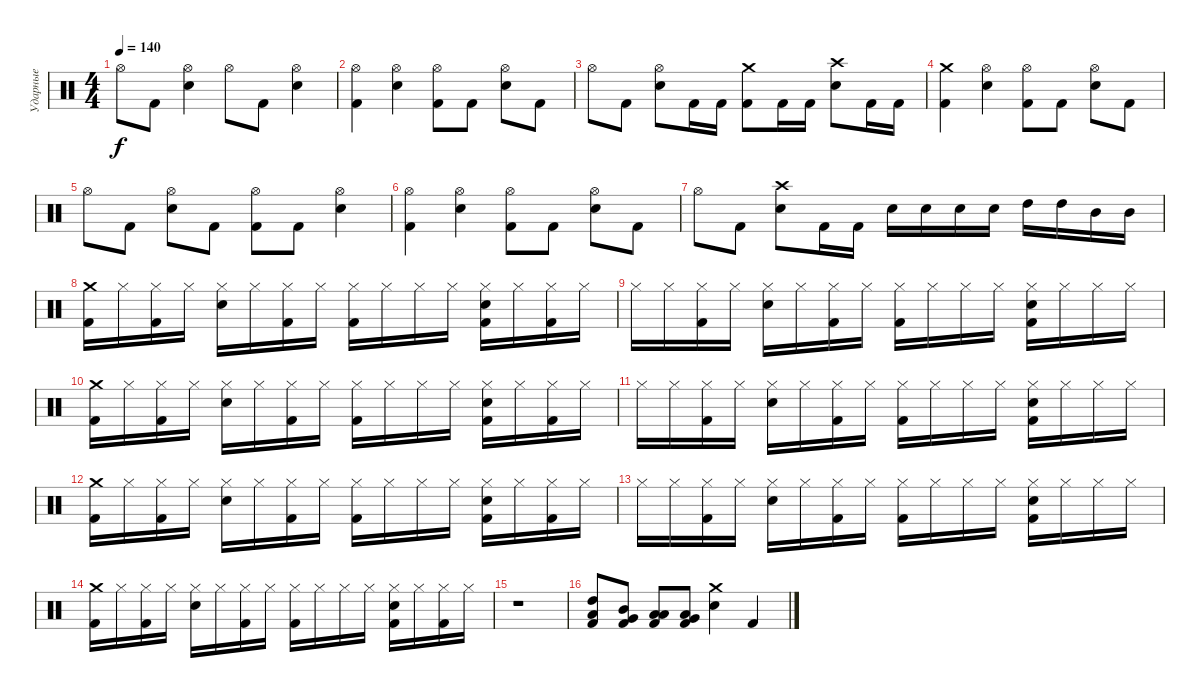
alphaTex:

\track ("Ударные" "Ударные") {instrument percussion}
\staff {score}
\articulation defaults
\ts (4 4)
\tempo 140
\clef neutral
\ks c "Hi-Hat (open)".8{dy f} "Kick (hit) 2".8
("Hi-Hat (open)" "Electric Snare (hit)").4 "Hi-Hat (open)".8 "Kick (hit) 2".8 ("Hi-Hat (open)" "Electric Snare (hit)").4 |
("Hi-Hat (open)" "Kick (hit) 2").4 ("Hi-Hat (open)" "Electric Snare (hit)").4 ("Hi-Hat (open)" "Kick (hit) 2").8 "Kick (hit) 2".8 ("Hi-Hat (open)" "Electric Snare (hit)").8 "Kick (hit) 2".8 |
"Hi-Hat (open)".8 "Kick (hit) 2".8 ("Hi-Hat (open)" "Electric Snare (hit)").8 "Kick (hit) 2".16 "Kick (hit) 2".16 ("Crash medium (hit)" "Kick (hit) 2").8 "Kick (hit) 2".16 "Kick (hit) 2".16 ("Crash high (hit)" "Electric Snare (hit)").8 "Kick (hit) 2".16 "Kick (hit) 2".16 |
("Crash medium (hit)" "Kick (hit) 2").4 ("Hi-Hat (open)" "Electric Snare (hit)").4 ("Hi-Hat (open)" "Kick (hit) 2").8 "Kick (hit) 2".8 ("Hi-Hat (open)" "Electric Snare (hit)").8 "Kick (hit) 2".8 |
"Hi-Hat (open)".8 "Kick (hit) 2".8 ("Hi-Hat (open)" "Electric Snare (hit)").8 "Kick (hit) 2".8 ("Hi-Hat (open)" "Kick (hit) 2").8 "Kick (hit) 2".8 ("Hi-Hat (open)" "Electric Snare (hit)").4 |
("Hi-Hat (open)" "Kick (hit) 2").4 ("Hi-Hat (open)" "Electric Snare (hit)").4 ("Hi-Hat (open)" "Kick (hit) 2").8 "Kick (hit) 2".8 ("Hi-Hat (open)" "Electric Snare (hit)").8 "Kick (hit) 2".8 |
"Hi-Hat (open)".8 "Kick (hit) 2".8 ("Crash high (hit)" "Electric Snare (hit)").8 "Kick (hit) 2".16 "Kick (hit) 2".16 "Electric Snare (hit)".16 "Electric Snare (hit)".16 "Electric Snare (hit)".16 "Electric Snare (hit)".16 "High Tom (hit)".16 "High Tom (hit)".16 "Mid Tom (hit)".16 "Mid Tom (hit)".16 |
("Crash medium (hit)" "Kick (hit) 2").16 "Hi-Hat (closed)".16 ("Hi-Hat (closed)" "Kick (hit) 2").16 "Hi-Hat (closed)".16 ("Hi-Hat (closed)" "Electric Snare (hit)").16 "Hi-Hat (closed)".16 ("Hi-Hat (closed)" "Kick (hit) 2").16 "Hi-Hat (closed)".16 ("Hi-Hat (closed)" "Kick (hit) 2").16 "Hi-Hat (closed)".16 "Hi-Hat (closed)".16 "Hi-Hat (closed)".16 ("Hi-Hat (closed)" "Electric Snare (hit)" "Kick (hit) 2").16 "Hi-Hat (closed)".16 ("Hi-Hat (closed)" "Kick (hit) 2").16 "Hi-Hat (closed)".16 |
"Hi-Hat (closed)".16 "Hi-Hat (closed)".16 ("Hi-Hat (closed)" "Kick (hit) 2").16 "Hi-Hat (closed)".16 ("Hi-Hat (closed)" "Electric Snare (hit)").16 "Hi-Hat (closed)".16 ("Hi-Hat (closed)" "Kick (hit) 2").16 "Hi-Hat (closed)".16 ("Hi-Hat (closed)" "Kick (hit) 2").16 "Hi-Hat (closed)".16 "Hi-Hat (closed)".16 "Hi-Hat (closed)".16 ("Hi-Hat (closed)" "Electric Snare (hit)" "Kick (hit) 2").16 "Hi-Hat (closed)".16 "Hi-Hat (closed)".16 "Hi-Hat (closed)".16 |
("Crash medium (hit)" "Kick (hit) 2").16 "Hi-Hat (closed)".16 ("Hi-Hat (closed)" "Kick (hit) 2").16 "Hi-Hat (closed)".16 ("Hi-Hat (closed)" "Electric Snare (hit)").16 "Hi-Hat (closed)".16 ("Hi-Hat (closed)" "Kick (hit) 2").16 "Hi-Hat (closed)".16 ("Hi-Hat (closed)" "Kick (hit) 2").16 "Hi-Hat (closed)".16 "Hi-Hat (closed)".16 "Hi-Hat (closed)".16 ("Hi-Hat (closed)" "Electric Snare (hit)" "Kick (hit) 2").16 "Hi-Hat (closed)".16 ("Hi-Hat (closed)" "Kick (hit) 2").16 "Hi-Hat (closed)".16 |
"Hi-Hat (closed)".16 "Hi-Hat (closed)".16 ("Hi-Hat (closed)" "Kick (hit) 2").16 "Hi-Hat (closed)".16 ("Hi-Hat (closed)" "Electric Snare (hit)").16 "Hi-Hat (closed)".16 ("Hi-Hat (closed)" "Kick (hit) 2").16 "Hi-Hat (closed)".16 ("Hi-Hat (closed)" "Kick (hit) 2").16 "Hi-Hat (closed)".16 "Hi-Hat (closed)".16 "Hi-Hat (closed)".16 ("Hi-Hat (closed)" "Electric Snare (hit)" "Kick (hit) 2").16 "Hi-Hat (closed)".16 "Hi-Hat (closed)".16 "Hi-Hat (closed)".16 |
("Crash medium (hit)" "Kick (hit) 2").16 "Hi-Hat (closed)".16 ("Hi-Hat (closed)" "Kick (hit) 2").16 "Hi-Hat (closed)".16 ("Hi-Hat (closed)" "Electric Snare (hit)").16 "Hi-Hat (closed)".16 ("Hi-Hat (closed)" "Kick (hit) 2").16 "Hi-Hat (closed)".16 ("Hi-Hat (closed)" "Kick (hit) 2").16 "Hi-Hat (closed)".16 "Hi-Hat (closed)".16 "Hi-Hat (closed)".16 ("Hi-Hat (closed)" "Electric Snare (hit)" "Kick (hit) 2").16 "Hi-Hat (closed)".16 ("Hi-Hat (closed)" "Kick (hit) 2").16 "Hi-Hat (closed)".16 |
"Hi-Hat (closed)".16 "Hi-Hat (closed)".16 ("Hi-Hat (closed)" "Kick (hit) 2").16 "Hi-Hat (closed)".16 ("Hi-Hat (closed)" "Electric Snare (hit)").16 "Hi-Hat (closed)".16 ("Hi-Hat (closed)" "Kick (hit) 2").16 "Hi-Hat (closed)".16 ("Hi-Hat (closed)" "Kick (hit) 2").16 "Hi-Hat (closed)".16 "Hi-Hat (closed)".16 "Hi-Hat (closed)".16 ("Hi-Hat (closed)" "Electric Snare (hit)" "Kick (hit) 2").16 "Hi-Hat (closed)".16 "Hi-Hat (closed)".16 "Hi-Hat (closed)".16 |
("Crash medium (hit)" "Kick (hit) 2").16 "Hi-Hat (closed)".16 ("Hi-Hat (closed)" "Kick (hit) 2").16 "Hi-Hat (closed)".16 ("Hi-Hat (closed)" "Electric Snare (hit)").16 "Hi-Hat (closed)".16 ("Hi-Hat (closed)" "Kick (hit) 2").16 "Hi-Hat (closed)".16 ("Hi-Hat (closed)" "Kick (hit) 2").16 "Hi-Hat (closed)".16 "Hi-Hat (closed)".16 "Hi-Hat (closed)".16 ("Hi-Hat (closed)" "Electric Snare (hit)" "Kick (hit) 2").16 "Hi-Hat (closed)".16 ("Hi-Hat (closed)" "Kick (hit) 2").16 "Hi-Hat (closed)".16 |
r.1 |
("High Tom (hit)" "Low Tom (hit)" "Kick (hit) 2").8 ("Mid Tom (hit)" "Very Low Tom (hit)" "Kick (hit) 2").8 ("Low Tom (hit)" "Low Floor Tom (hit)" "Kick (hit) 2").8 ("Very Low Tom (hit)" "Low Floor Tom (hit)" "Kick (hit) 2").8 ("Crash medium (hit)" "Electric Snare (hit)").4 "Kick (hit) 2".4
